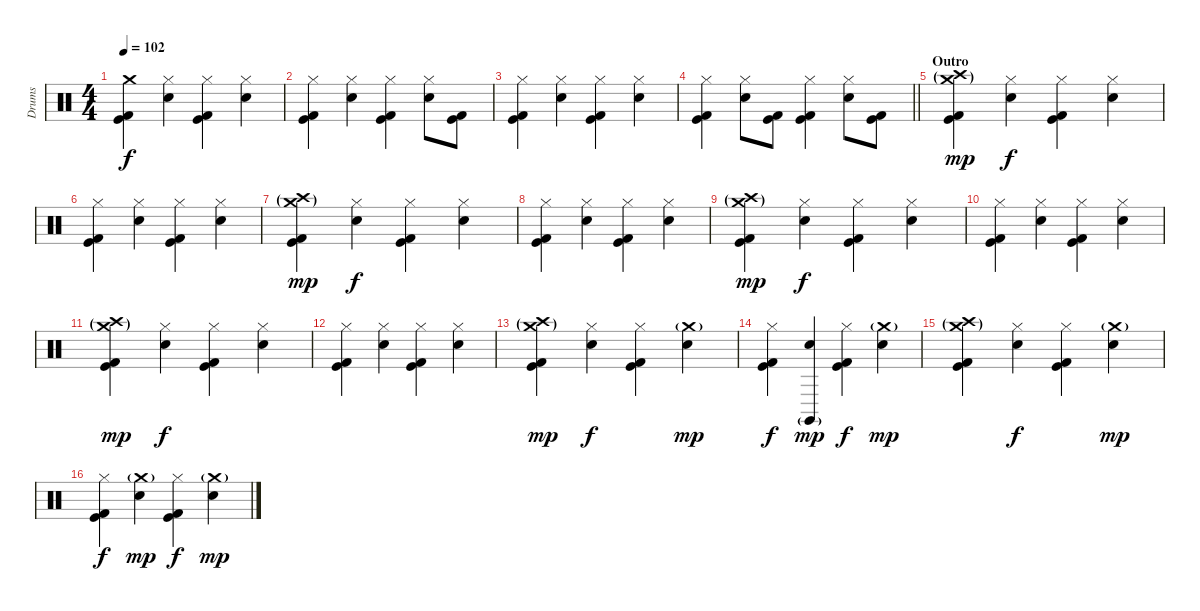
\track ("Drums" "Drums") {instrument percussion}
\staff {score}
\articulation defaults
\ts (4 4)
\section ("" "")
\tempo 102
\clef neutral
\ks c
("Crash medium (hit)" "Kick (hit)" "Kick (hit) 2").4{dy f} ("Hi-Hat (closed)" "Electric Snare (hit)").4 ("Hi-Hat (closed)" "Kick (hit)" "Kick (hit) 2").4 ("Hi-Hat (closed)" "Electric Snare (hit)").4 |
("Hi-Hat (closed)" "Kick (hit)" "Kick (hit) 2").4 ("Hi-Hat (closed)" "Electric Snare (hit)").4 ("Hi-Hat (closed)" "Kick (hit)" "Kick (hit) 2").4 ("Hi-Hat (closed)" "Electric Snare (hit)").8 ("Kick (hit)" "Kick (hit) 2").8 |
("Hi-Hat (closed)" "Kick (hit)" "Kick (hit) 2").4 ("Hi-Hat (closed)" "Electric Snare (hit)").4 ("Hi-Hat (closed)" "Kick (hit)" "Kick (hit) 2").4 ("Hi-Hat (closed)" "Electric Snare (hit)").4 |
\barLineRight lightlight
("Hi-Hat (closed)" "Kick (hit)" "Kick (hit) 2").4 ("Hi-Hat (closed)" "Electric Snare (hit)").8 ("Kick (hit)" "Kick (hit) 2").8 ("Hi-Hat (closed)" "Kick (hit)" "Kick (hit) 2").4 ("Hi-Hat (closed)" "Electric Snare (hit)").8 ("Kick (hit)" "Kick (hit) 2").8 |
\section ("" "Outro")
("Crash high (hit)"{g} "Crash medium (hit)"{g} "Kick (hit)" "Kick (hit) 2").4{dy mp} ("Hi-Hat (closed)" "Electric Snare (hit)").4{dy f} ("Hi-Hat (closed)" "Kick (hit)" "Kick (hit) 2").4 ("Hi-Hat (closed)" "Electric Snare (hit)").4 |
("Hi-Hat (closed)" "Kick (hit)" "Kick (hit) 2").4 ("Hi-Hat (closed)" "Electric Snare (hit)").4 ("Hi-Hat (closed)" "Kick (hit)" "Kick (hit) 2").4 ("Hi-Hat (closed)" "Electric Snare (hit)").4 |
("Crash high (hit)"{g} "Crash medium (hit)"{g} "Kick (hit)" "Kick (hit) 2").4{dy mp} ("Hi-Hat (closed)" "Electric Snare (hit)").4{dy f} ("Hi-Hat (closed)" "Kick (hit)" "Kick (hit) 2").4 ("Hi-Hat (closed)" "Electric Snare (hit)").4 |
("Hi-Hat (closed)" "Kick (hit)" "Kick (hit) 2").4 ("Hi-Hat (closed)" "Electric Snare (hit)").4 ("Hi-Hat (closed)" "Kick (hit)" "Kick (hit) 2").4 ("Hi-Hat (closed)" "Electric Snare (hit)").4 |
("Crash high (hit)"{g} "Crash medium (hit)"{g} "Kick (hit)" "Kick (hit) 2").4{dy mp} ("Hi-Hat (closed)" "Electric Snare (hit)").4{dy f} ("Hi-Hat (closed)" "Kick (hit)" "Kick (hit) 2").4 ("Hi-Hat (closed)" "Electric Snare (hit)").4 |
("Hi-Hat (closed)" "Kick (hit)" "Kick (hit) 2").4 ("Hi-Hat (closed)" "Electric Snare (hit)").4 ("Hi-Hat (closed)" "Kick (hit)" "Kick (hit) 2").4 ("Hi-Hat (closed)" "Electric Snare (hit)").4 |
("Crash high (hit)"{g} "Crash medium (hit)"{g} "Kick (hit)" "Kick (hit) 2").4{dy mp} ("Hi-Hat (closed)" "Electric Snare (hit)").4{dy f} ("Hi-Hat (closed)" "Kick (hit)" "Kick (hit) 2").4 ("Hi-Hat (closed)" "Electric Snare (hit)").4 |
("Hi-Hat (closed)" "Kick (hit)" "Kick (hit) 2").4 ("Hi-Hat (closed)" "Electric Snare (hit)").4 ("Hi-Hat (closed)" "Kick (hit)" "Kick (hit) 2").4 ("Hi-Hat (closed)" "Electric Snare (hit)").4 |
("Crash high (hit)"{g} "Crash medium (hit)"{g} "Kick (hit)" "Kick (hit) 2").4{dy mp} ("Hi-Hat (closed)" "Electric Snare (hit)").4{dy f} ("Hi-Hat (closed)" "Kick (hit)" "Kick (hit) 2").4 ("Crash medium (hit)"{g} "Electric Snare (hit)").4{dy mp} |
("Hi-Hat (closed)" "Kick (hit)" "Kick (hit) 2").4{dy f} ("Claves (hit)"{g} "Electric Snare (hit)").4{dy mp} ("Hi-Hat (closed)" "Kick (hit)" "Kick (hit) 2").4{dy f} ("Crash medium (hit)"{g} "Electric Snare (hit)").4{dy mp} |
("Crash high (hit)"{g} "Crash medium (hit)"{g} "Kick (hit)" "Kick (hit) 2").4 ("Hi-Hat (closed)" "Electric Snare (hit)").4{dy f} ("Hi-Hat (closed)" "Kick (hit)" "Kick (hit) 2").4 ("Crash medium (hit)"{g} "Electric Snare (hit)").4{dy mp} |
("Hi-Hat (closed)" "Kick (hit)" "Kick (hit) 2").4{dy f} ("Crash medium (hit)"{g} "Electric Snare (hit)").4{dy mp} ("Hi-Hat (closed)" "Kick (hit)" "Kick (hit) 2").4{dy f} ("Crash medium (hit)"{g} "Electric Snare (hit)").4{dy mp}
